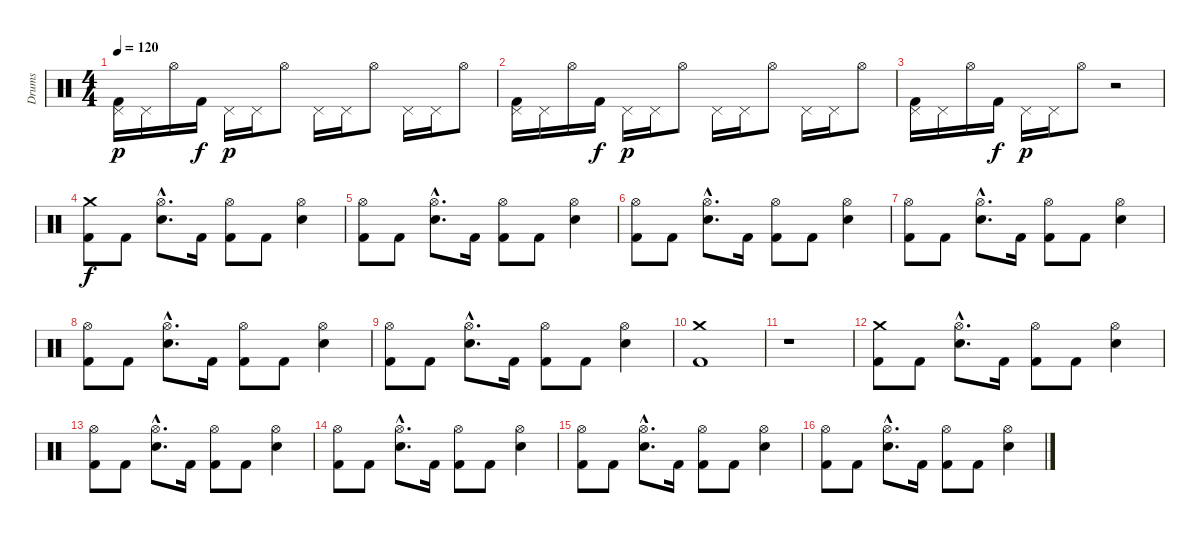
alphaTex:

\track ("Drums" "Drums") {instrument percussion}
\staff {score}
\articulation defaults
\ts (4 4)
\tempo 120
\clef neutral
\ks c
("Pedal Hi-Hat (hit)" "Kick (hit) 2").16{dy p} "Pedal Hi-Hat (hit)".16 "Hi-Hat (open)".16 "Kick (hit) 2".16{dy f} "Pedal Hi-Hat (hit)".16{dy p} "Pedal Hi-Hat (hit)".16 "Hi-Hat (open)".8 "Pedal Hi-Hat (hit)".16 "Pedal Hi-Hat (hit)".16 "Hi-Hat (open)".8 "Pedal Hi-Hat (hit)".16 "Pedal Hi-Hat (hit)".16 "Hi-Hat (open)".8 |
("Pedal Hi-Hat (hit)" "Kick (hit) 2").16 "Pedal Hi-Hat (hit)".16 "Hi-Hat (open)".16 "Kick (hit) 2".16{dy f} "Pedal Hi-Hat (hit)".16{dy p} "Pedal Hi-Hat (hit)".16 "Hi-Hat (open)".8 "Pedal Hi-Hat (hit)".16 "Pedal Hi-Hat (hit)".16 "Hi-Hat (open)".8 "Pedal Hi-Hat (hit)".16 "Pedal Hi-Hat (hit)".16 "Hi-Hat (open)".8 |
("Pedal Hi-Hat (hit)" "Kick (hit) 2").16 "Pedal Hi-Hat (hit)".16 "Hi-Hat (open)".16 "Kick (hit) 2".16{dy f} "Pedal Hi-Hat (hit)".16{dy p} "Pedal Hi-Hat (hit)".16 "Hi-Hat (open)".8 r.2 |
("Crash medium (hit)" "Kick (hit) 2").8{dy f} "Kick (hit) 2".8 ("Hi-Hat (open)"{hac} "Electric Snare (hit)"{hac}).8{d} "Kick (hit) 2".16 ("Hi-Hat (open)" "Kick (hit) 2").8 "Kick (hit) 2".8 ("Hi-Hat (open)" "Electric Snare (hit)").4 |
("Hi-Hat (open)" "Kick (hit) 2").8 "Kick (hit) 2".8 ("Hi-Hat (open)"{hac} "Electric Snare (hit)"{hac}).8{d} "Kick (hit) 2".16 ("Hi-Hat (open)" "Kick (hit) 2").8 "Kick (hit) 2".8 ("Hi-Hat (open)" "Electric Snare (hit)").4 |
("Hi-Hat (open)" "Kick (hit) 2").8 "Kick (hit) 2".8 ("Hi-Hat (open)"{hac} "Electric Snare (hit)"{hac}).8{d} "Kick (hit) 2".16 ("Hi-Hat (open)" "Kick (hit) 2").8 "Kick (hit) 2".8 ("Hi-Hat (open)" "Electric Snare (hit)").4 |
("Hi-Hat (open)" "Kick (hit) 2").8 "Kick (hit) 2".8 ("Hi-Hat (open)"{hac} "Electric Snare (hit)"{hac}).8{d} "Kick (hit) 2".16 ("Hi-Hat (open)" "Kick (hit) 2").8 "Kick (hit) 2".8 ("Hi-Hat (open)" "Electric Snare (hit)").4 |
("Hi-Hat (open)" "Kick (hit) 2").8 "Kick (hit) 2".8 ("Hi-Hat (open)"{hac} "Electric Snare (hit)"{hac}).8{d} "Kick (hit) 2".16 ("Hi-Hat (open)" "Kick (hit) 2").8 "Kick (hit) 2".8 ("Hi-Hat (open)" "Electric Snare (hit)").4 |
("Hi-Hat (open)" "Kick (hit) 2").8 "Kick (hit) 2".8 ("Hi-Hat (open)"{hac} "Electric Snare (hit)"{hac}).8{d} "Kick (hit) 2".16 ("Hi-Hat (open)" "Kick (hit) 2").8 "Kick (hit) 2".8 ("Hi-Hat (open)" "Electric Snare (hit)").4 |
("Crash medium (hit)" "Kick (hit) 2").1 |
r.1 |
("Crash medium (hit)" "Kick (hit) 2").8 "Kick (hit) 2".8 ("Hi-Hat (open)"{hac} "Electric Snare (hit)"{hac}).8{d} "Kick (hit) 2".16 ("Hi-Hat (open)" "Kick (hit) 2").8 "Kick (hit) 2".8 ("Hi-Hat (open)" "Electric Snare (hit)").4 |
("Hi-Hat (open)" "Kick (hit) 2").8 "Kick (hit) 2".8 ("Hi-Hat (open)"{hac} "Electric Snare (hit)"{hac}).8{d} "Kick (hit) 2".16 ("Hi-Hat (open)" "Kick (hit) 2").8 "Kick (hit) 2".8 ("Hi-Hat (open)" "Electric Snare (hit)").4 |
("Hi-Hat (open)" "Kick (hit) 2").8 "Kick (hit) 2".8 ("Hi-Hat (open)"{hac} "Electric Snare (hit)"{hac}).8{d} "Kick (hit) 2".16 ("Hi-Hat (open)" "Kick (hit) 2").8 "Kick (hit) 2".8 ("Hi-Hat (open)" "Electric Snare (hit)").4 |
("Hi-Hat (open)" "Kick (hit) 2").8 "Kick (hit) 2".8 ("Hi-Hat (open)"{hac} "Electric Snare (hit)"{hac}).8{d} "Kick (hit) 2".16 ("Hi-Hat (open)" "Kick (hit) 2").8 "Kick (hit) 2".8 ("Hi-Hat (open)" "Electric Snare (hit)").4 |
("Hi-Hat (open)" "Kick (hit) 2").8 "Kick (hit) 2".8 ("Hi-Hat (open)"{hac} "Electric Snare (hit)"{hac}).8{d} "Kick (hit) 2".16 ("Hi-Hat (open)" "Kick (hit) 2").8 "Kick (hit) 2".8 ("Hi-Hat (open)" "Electric Snare (hit)").4
